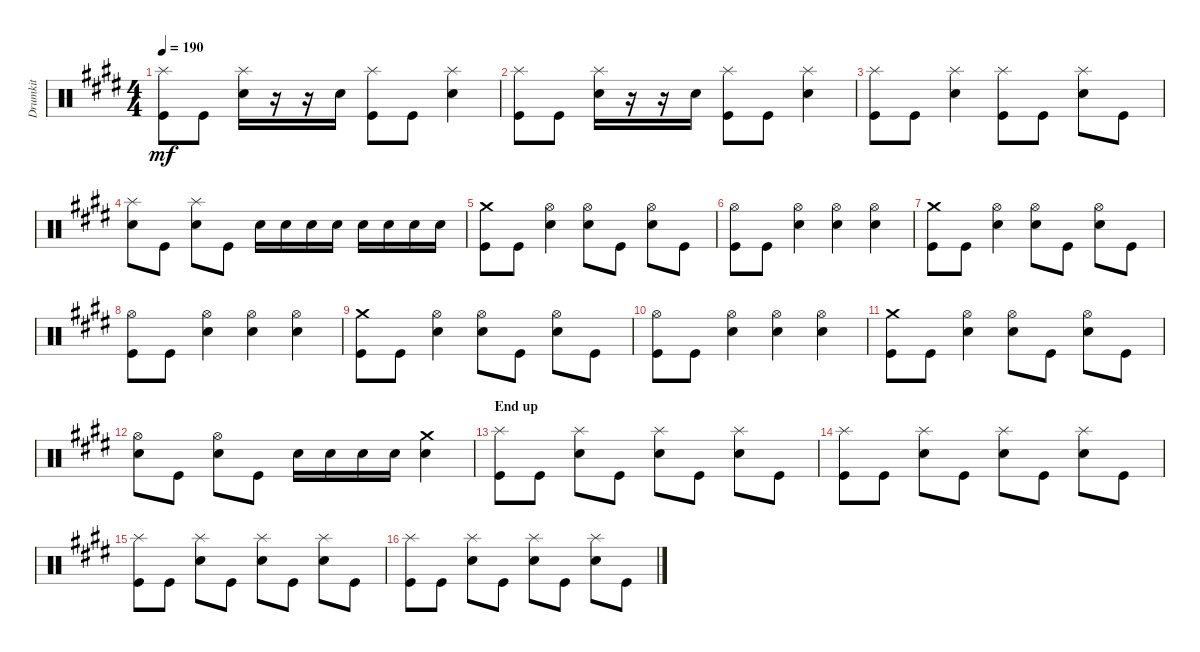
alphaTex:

\track ("Drumkit" "Drumkit") {instrument percussion}
\staff {score}
\articulation defaults
\ts (4 4)
\tempo 190
\clef neutral
\ks e
("Kick (hit)" "Splash (hit)").8{dy mf} "Kick (hit)".8 ("Splash (hit)" "Snare (hit) 2").16 r.16 r.16 "Snare (hit) 2".16 ("Splash (hit)" "Kick (hit)").8 "Kick (hit)".8 ("Splash (hit)" "Snare (hit) 2").4 |
("Kick (hit)" "Splash (hit)").8 "Kick (hit)".8 ("Splash (hit)" "Snare (hit) 2").16 r.16 r.16 "Snare (hit) 2".16 ("Splash (hit)" "Kick (hit)").8 "Kick (hit)".8 ("Splash (hit)" "Snare (hit) 2").4 |
("Splash (hit)" "Kick (hit)").8 "Kick (hit)".8 ("Splash (hit)" "Snare (hit) 2").4 ("Kick (hit)" "Splash (hit)").8 "Kick (hit)".8 ("Snare (hit) 2" "Splash (hit)").8 "Kick (hit)".8 |
("Snare (hit) 2" "Splash (hit)").8 "Kick (hit)".8 ("Snare (hit) 2" "Splash (hit)").8 "Kick (hit)".8 "Snare (hit) 2".16 "Snare (hit) 2".16 "Snare (hit) 2".16 "Snare (hit) 2".16 "Snare (hit) 2".16 "Snare (hit) 2".16 "Snare (hit) 2".16 "Snare (hit) 2".16 |
("Crash medium (hit)" "Kick (hit)").8 "Kick (hit)".8 ("Snare (hit) 2" "Hi-Hat (open)").4 ("Snare (hit) 2" "Hi-Hat (open)").8 "Kick (hit)".8 ("Snare (hit) 2" "Hi-Hat (open)").8 "Kick (hit)".8 |
("Kick (hit)" "Hi-Hat (open)").8 "Kick (hit)".8 ("Snare (hit) 2" "Hi-Hat (open)").4 ("Snare (hit) 2" "Hi-Hat (open)").4 ("Snare (hit) 2" "Hi-Hat (open)").4 |
("Crash medium (hit)" "Kick (hit)").8 "Kick (hit)".8 ("Snare (hit) 2" "Hi-Hat (open)").4 ("Snare (hit) 2" "Hi-Hat (open)").8 "Kick (hit)".8 ("Snare (hit) 2" "Hi-Hat (open)").8 "Kick (hit)".8 |
("Kick (hit)" "Hi-Hat (open)").8 "Kick (hit)".8 ("Snare (hit) 2" "Hi-Hat (open)").4 ("Snare (hit) 2" "Hi-Hat (open)").4 ("Snare (hit) 2" "Hi-Hat (open)").4 |
("Crash medium (hit)" "Kick (hit)").8 "Kick (hit)".8 ("Snare (hit) 2" "Hi-Hat (open)").4 ("Snare (hit) 2" "Hi-Hat (open)").8 "Kick (hit)".8 ("Snare (hit) 2" "Hi-Hat (open)").8 "Kick (hit)".8 |
("Kick (hit)" "Hi-Hat (open)").8 "Kick (hit)".8 ("Snare (hit) 2" "Hi-Hat (open)").4 ("Snare (hit) 2" "Hi-Hat (open)").4 ("Snare (hit) 2" "Hi-Hat (open)").4 |
("Crash medium (hit)" "Kick (hit)").8 "Kick (hit)".8 ("Snare (hit) 2" "Hi-Hat (open)").4 ("Snare (hit) 2" "Hi-Hat (open)").8 "Kick (hit)".8 ("Snare (hit) 2" "Hi-Hat (open)").8 "Kick (hit)".8 |
("Snare (hit) 2" "Hi-Hat (open)").8 "Kick (hit)".8 ("Snare (hit) 2" "Hi-Hat (open)").8 "Kick (hit)".8 "Snare (hit) 2".16 "Snare (hit) 2".16 "Snare (hit) 2".16 "Snare (hit) 2".16 ("Snare (hit) 2" "Crash medium (hit)").4 |
\section ("" "End up")
("Splash (hit)" "Kick (hit)").8 "Kick (hit)".8 ("Snare (hit) 2" "Splash (hit)").8 "Kick (hit)".8 ("Snare (hit) 2" "Splash (hit)").8 "Kick (hit)".8 ("Snare (hit) 2" "Splash (hit)").8 "Kick (hit)".8 |
("Splash (hit)" "Kick (hit)").8 "Kick (hit)".8 ("Snare (hit) 2" "Splash (hit)").8 "Kick (hit)".8 ("Snare (hit) 2" "Splash (hit)").8 "Kick (hit)".8 ("Snare (hit) 2" "Splash (hit)").8 "Kick (hit)".8 |
("Splash (hit)" "Kick (hit)").8 "Kick (hit)".8 ("Snare (hit) 2" "Splash (hit)").8 "Kick (hit)".8 ("Snare (hit) 2" "Splash (hit)").8 "Kick (hit)".8 ("Snare (hit) 2" "Splash (hit)").8 "Kick (hit)".8 |
("Splash (hit)" "Kick (hit)").8 "Kick (hit)".8 ("Snare (hit) 2" "Splash (hit)").8 "Kick (hit)".8 ("Snare (hit) 2" "Splash (hit)").8 "Kick (hit)".8 ("Snare (hit) 2" "Splash (hit)").8 "Kick (hit)".8
